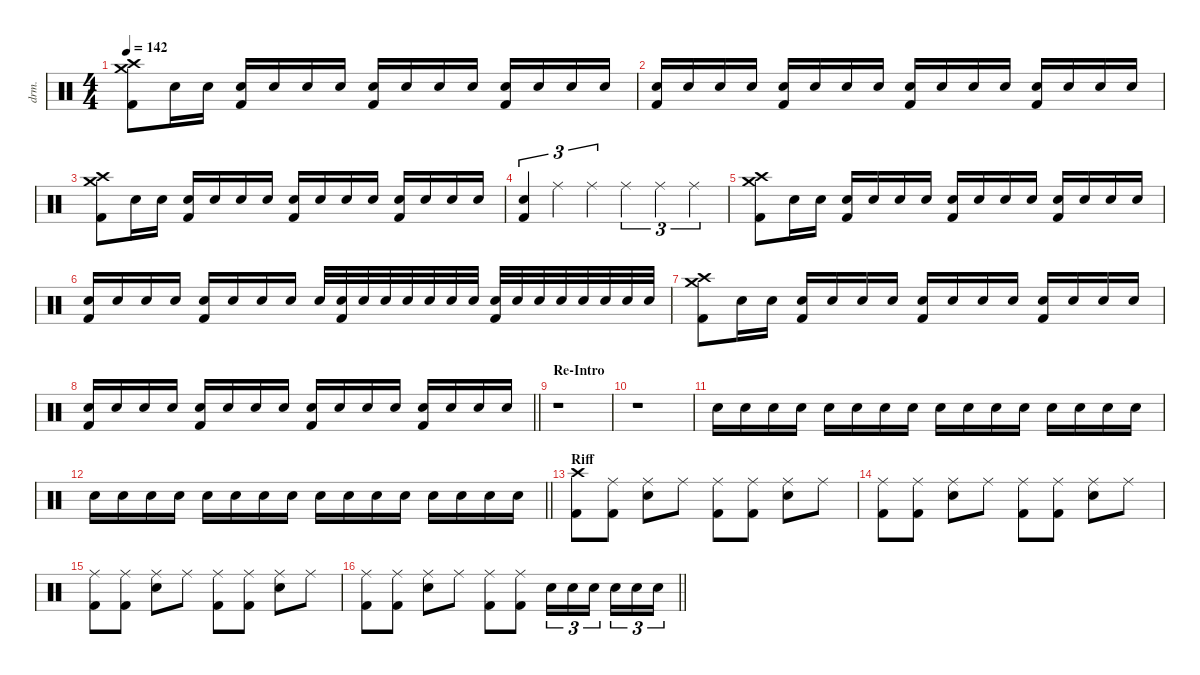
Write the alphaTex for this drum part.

\defaultSystemsLayout 4
\hideDynamics
\bracketExtendMode nobrackets
\otherSystemsTrackNameOrientation horizontal
\track ("Drums" "drm.") {defaultSystemsLayout 4 instrument percussion}
\staff {score}
\articulation defaults
\ts (4 4)
\tempo 142
\clef neutral
\ks c
("Crash high (hit)" "Crash medium (hit)" "Kick (hit) 2").8{dy f beam Down} "Snare (hit) 2".16{dy p beam Down} "Snare (hit) 2".16{beam Down} ("Snare (hit) 2" "Kick (hit) 2").16{beam Up} "Snare (hit) 2".16{beam Up} "Snare (hit) 2".16{beam Up} "Snare (hit) 2".16{beam Up} ("Snare (hit) 2" "Kick (hit) 2").16{dy mp beam Up} "Snare (hit) 2".16{beam Up} "Snare (hit) 2".16{beam Up} "Snare (hit) 2".16{beam Up} ("Snare (hit) 2" "Kick (hit) 2").16{dy mf beam Up} "Snare (hit) 2".16{beam Up} "Snare (hit) 2".16{beam Up} "Snare (hit) 2".16{beam Up} |
("Snare (hit) 2" "Kick (hit) 2").16{dy f beam Up} "Snare (hit) 2".16{beam Up} "Snare (hit) 2".16{beam Up} "Snare (hit) 2".16{beam Up} ("Snare (hit) 2" "Kick (hit) 2").16{dy ff beam Up} "Snare (hit) 2".16{beam Up} "Snare (hit) 2".16{beam Up} "Snare (hit) 2".16{beam Up} ("Snare (hit) 2" "Kick (hit) 2").16{dy fff beam Up} "Snare (hit) 2".16{beam Up} "Snare (hit) 2".16{beam Up} "Snare (hit) 2".16{beam Up} ("Snare (hit) 2" "Kick (hit) 2").16{beam Up} "Snare (hit) 2".16{beam Up} "Snare (hit) 2".16{beam Up} "Snare (hit) 2".16{beam Up} |
("Crash high (hit)" "Crash medium (hit)" "Kick (hit) 2").8{dy f beam Down} "Snare (hit) 2".16{dy p beam Down} "Snare (hit) 2".16{beam Down} ("Snare (hit) 2" "Kick (hit) 2").16{beam Up} "Snare (hit) 2".16{beam Up} "Snare (hit) 2".16{beam Up} "Snare (hit) 2".16{beam Up} ("Snare (hit) 2" "Kick (hit) 2").16{dy mp beam Up} "Snare (hit) 2".16{beam Up} "Snare (hit) 2".16{beam Up} "Snare (hit) 2".16{beam Up} ("Snare (hit) 2" "Kick (hit) 2").16{dy mf beam Up} "Snare (hit) 2".16{beam Up} "Snare (hit) 2".16{beam Up} "Snare (hit) 2".16{beam Up} |
("Snare (hit) 2" "Kick (hit) 2").4{tu (3 2) dy fff beam Up} "Ride (middle)".4{tu (3 2) beam Down} "Ride (middle)".4{tu (3 2) beam Down} "Ride (middle)".4{tu (3 2) beam Down} "Ride (middle)".4{tu (3 2) beam Down} "Ride (middle)".4{tu (3 2) beam Down} |
("Crash high (hit)" "Crash medium (hit)" "Kick (hit) 2").8{dy f beam Down} "Snare (hit) 2".16{dy p beam Down} "Snare (hit) 2".16{beam Down} ("Snare (hit) 2" "Kick (hit) 2").16{beam Up} "Snare (hit) 2".16{beam Up} "Snare (hit) 2".16{beam Up} "Snare (hit) 2".16{beam Up} ("Snare (hit) 2" "Kick (hit) 2").16{dy mp beam Up} "Snare (hit) 2".16{beam Up} "Snare (hit) 2".16{beam Up} "Snare (hit) 2".16{beam Up} ("Snare (hit) 2" "Kick (hit) 2").16{dy mf beam Up} "Snare (hit) 2".16{beam Up} "Snare (hit) 2".16{beam Up} "Snare (hit) 2".16{beam Up} |
("Snare (hit) 2" "Kick (hit) 2").16{dy f beam Up} "Snare (hit) 2".16{beam Up} "Snare (hit) 2".16{beam Up} "Snare (hit) 2".16{beam Up} ("Snare (hit) 2" "Kick (hit) 2").16{dy ff beam Up} "Snare (hit) 2".16{beam Up} "Snare (hit) 2".16{beam Up} "Snare (hit) 2".16{beam Up} "Snare (hit) 2".32{dy fff beam Up} ("Snare (hit) 2" "Kick (hit) 2").32{dy p beam Up} "Snare (hit) 2".32{beam Up} "Snare (hit) 2".32{dy mp beam Up} "Snare (hit) 2".32{beam Up} "Snare (hit) 2".32{dy mf beam Up} "Snare (hit) 2".32{beam Up} "Snare (hit) 2".32{dy f beam Up} ("Snare (hit) 2" "Kick (hit) 2").32{beam Up} "Snare (hit) 2".32{beam Up} "Snare (hit) 2".32{beam Up} "Snare (hit) 2".32{beam Up} "Snare (hit) 2".32{beam Up} "Snare (hit) 2".32{beam Up} "Snare (hit) 2".32{beam Up} "Snare (hit) 2".32{beam Up} |
("Crash high (hit)" "Crash medium (hit)" "Kick (hit) 2").8{beam Down} "Snare (hit) 2".16{dy p beam Down} "Snare (hit) 2".16{beam Down} ("Snare (hit) 2" "Kick (hit) 2").16{beam Up} "Snare (hit) 2".16{beam Up} "Snare (hit) 2".16{beam Up} "Snare (hit) 2".16{beam Up} ("Snare (hit) 2" "Kick (hit) 2").16{dy mp beam Up} "Snare (hit) 2".16{beam Up} "Snare (hit) 2".16{beam Up} "Snare (hit) 2".16{beam Up} ("Snare (hit) 2" "Kick (hit) 2").16{dy mf beam Up} "Snare (hit) 2".16{beam Up} "Snare (hit) 2".16{beam Up} "Snare (hit) 2".16{beam Up} |
\barLineRight lightlight
("Snare (hit) 2" "Kick (hit) 2").16{dy f beam Up} "Snare (hit) 2".16{beam Up} "Snare (hit) 2".16{beam Up} "Snare (hit) 2".16{beam Up} ("Snare (hit) 2" "Kick (hit) 2").16{dy mf beam Up} "Snare (hit) 2".16{beam Up} "Snare (hit) 2".16{dy mp beam Up} "Snare (hit) 2".16{beam Up} ("Snare (hit) 2" "Kick (hit) 2").16{beam Up} "Snare (hit) 2".16{beam Up} "Snare (hit) 2".16{dy p beam Up} "Snare (hit) 2".16{beam Up} ("Snare (hit) 2" "Kick (hit) 2").16{dy pp beam Up} "Snare (hit) 2".16{beam Up} "Snare (hit) 2".16{dy ppp beam Up} "Snare (hit) 2".16{beam Up} |
\section ("" "Re-Intro")
r.1{beam Down} |
r.1{beam Down} |
"Snare (hit) 2".16{beam Down} "Snare (hit) 2".16{beam Down} "Snare (hit) 2".16{beam Down} "Snare (hit) 2".16{beam Down} "Snare (hit) 2".16{dy pp beam Down} "Snare (hit) 2".16{beam Down} "Snare (hit) 2".16{beam Down} "Snare (hit) 2".16{beam Down} "Snare (hit) 2".16{dy p beam Down} "Snare (hit) 2".16{beam Down} "Snare (hit) 2".16{beam Down} "Snare (hit) 2".16{beam Down} "Snare (hit) 2".16{dy mp beam Down} "Snare (hit) 2".16{beam Down} "Snare (hit) 2".16{beam Down} "Snare (hit) 2".16{beam Down} |
\barLineRight lightlight "Snare (hit) 2".16{dy mf beam Down} "Snare (hit) 2".16{beam Down} "Snare (hit) 2".16{beam Down} "Snare (hit) 2".16{beam Down} "Snare (hit) 2".16{dy f beam Down} "Snare (hit) 2".16{beam Down} "Snare (hit) 2".16{beam Down} "Snare (hit) 2".16{beam Down} "Snare (hit) 2".16{dy ff beam Down} "Snare (hit) 2".16{beam Down} "Snare (hit) 2".16{beam Down} "Snare (hit) 2".16{beam Down} "Snare (hit) 2".16{dy fff beam Down} "Snare (hit) 2".16{beam Down} "Snare (hit) 2".16{beam Down} "Snare (hit) 2".16{beam Down}
|
\section ("" "Riff")
("Crash high (hit)" "Kick (hit) 2").8{dy f beam Down} ("Ride (middle)" "Kick (hit) 2").8{beam Down} ("Ride (middle)" "Snare (hit) 2").8{beam Down} "Ride (middle)".8{beam Down} ("Ride (middle)" "Kick (hit) 2").8{beam Down} ("Ride (middle)" "Kick (hit) 2").8{beam Down} ("Ride (middle)" "Snare (hit) 2").8{beam Down} "Ride (middle)".8{beam Down} |
("Ride (middle)" "Kick (hit) 2").8{beam Down} ("Ride (middle)" "Kick (hit) 2").8{beam Down} ("Ride (middle)" "Snare (hit) 2").8{beam Down} "Ride (middle)".8{beam Down} ("Ride (middle)" "Kick (hit) 2").8{beam Down} ("Ride (middle)" "Kick (hit) 2").8{beam Down} ("Ride (middle)" "Snare (hit) 2").8{beam Down} "Ride (middle)".8{beam Down} |
("Ride (middle)" "Kick (hit) 2").8{beam Down} ("Ride (middle)" "Kick (hit) 2").8{beam Down} ("Ride (middle)" "Snare (hit) 2").8{beam Down} "Ride (middle)".8{beam Down} ("Ride (middle)" "Kick (hit) 2").8{beam Down} ("Ride (middle)" "Kick (hit) 2").8{beam Down} ("Ride (middle)" "Snare (hit) 2").8{beam Down} "Ride (middle)".8{beam Down} |
\barLineRight lightlight
("Ride (middle)" "Kick (hit) 2").8{beam Down} ("Ride (middle)" "Kick (hit) 2").8{beam Down} ("Ride (middle)" "Snare (hit) 2").8{beam Down} "Ride (middle)".8{beam Down} ("Ride (middle)" "Kick (hit) 2").8{beam Down} ("Ride (middle)" "Kick (hit) 2").8{beam Down} "Snare (hit) 2".16{tu (3 2) beam Down} "Snare (hit) 2".16{tu (3 2) beam Down} "Snare (hit) 2".16{tu (3 2) beam Down} "Snare (hit) 2".16{tu (3 2) beam Down} "Snare (hit) 2".16{tu (3 2) beam Down} "Snare (hit) 2".16{tu (3 2) beam Down}
